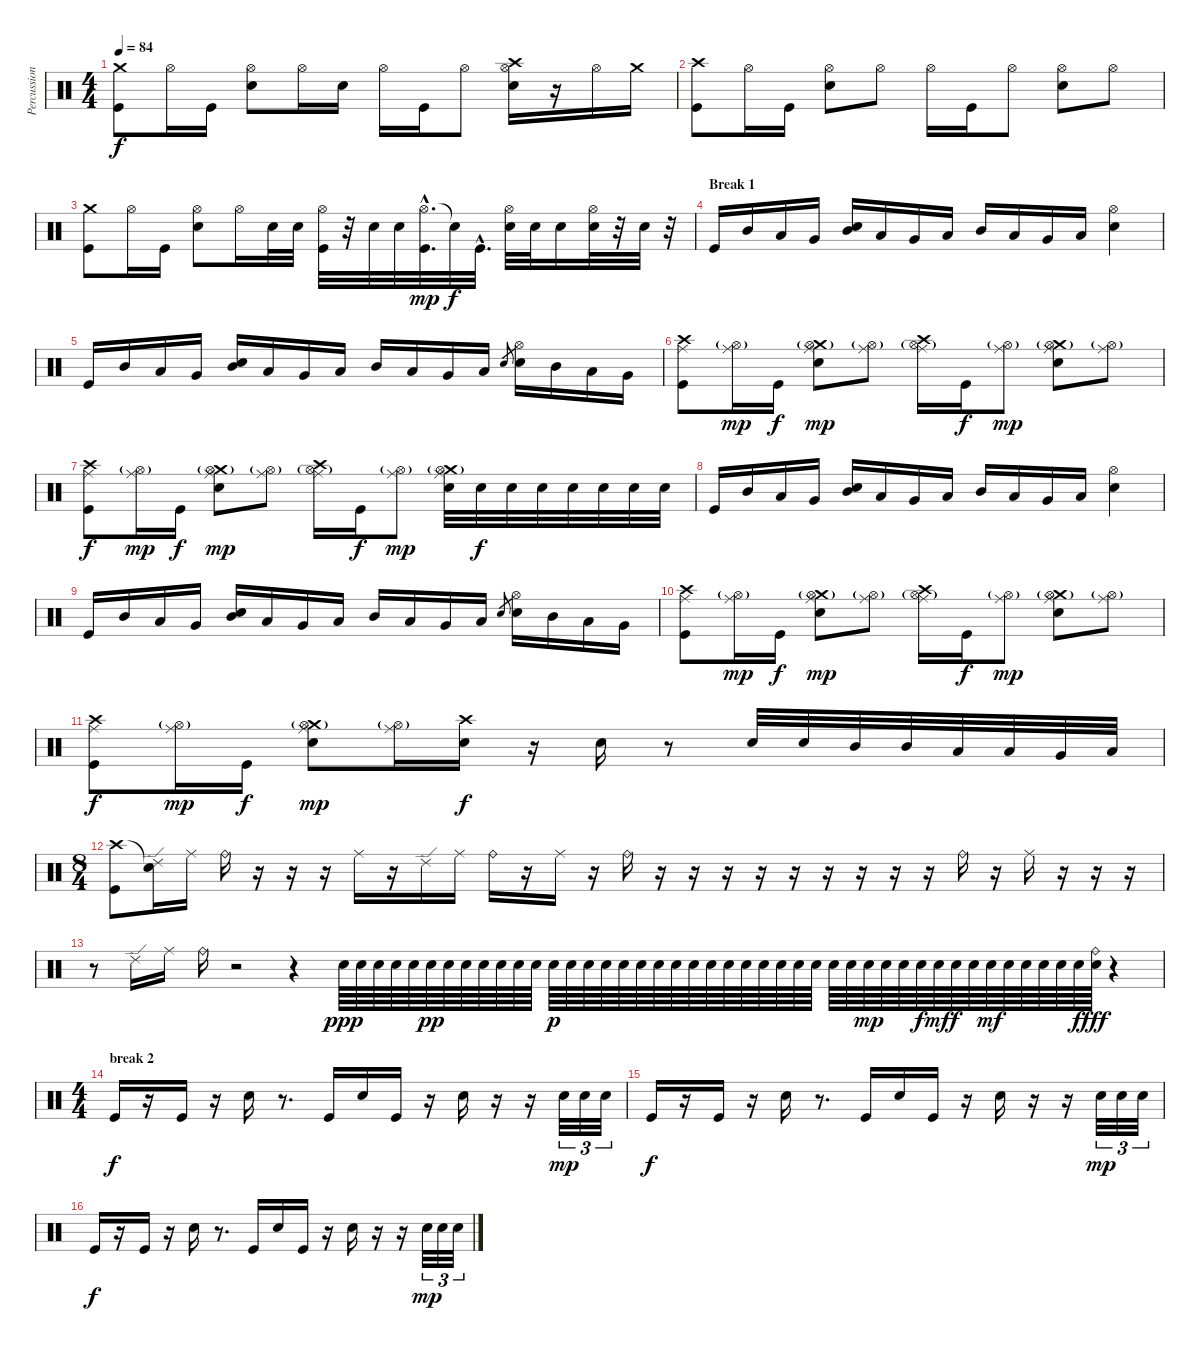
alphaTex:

\track ("Percussions" "Percussion") {instrument percussion}
\staff {score}
\articulation defaults
\ts (4 4)
\tempo 84
\clef neutral
\ks c
("Crash medium (hit)" "Kick (hit)").8{dy f} "Hi-Hat (open)".16 "Kick (hit)".16 ("Hi-Hat (open)" "Snare (hit) 2").8 "Hi-Hat (open)".16 "Snare (hit) 2".16 "Hi-Hat (open)".16 "Kick (hit)".16 "Hi-Hat (open)".8 ("Hi-Hat (open)" "Crash high (hit)" "Snare (hit) 2").16 r.16 "Hi-Hat (open)".16 "Crash medium (hit)".16 |
("Crash high (hit)" "Kick (hit)").8 "Hi-Hat (open)".16 "Kick (hit)".16 ("Hi-Hat (open)" "Snare (hit) 2").8 "Hi-Hat (open)".8 "Hi-Hat (open)".16 "Kick (hit)".16 "Hi-Hat (open)".8 ("Hi-Hat (open)" "Snare (hit) 2").8 "Hi-Hat (open)".8 |
("Crash medium (hit)" "Kick (hit)").8 "Hi-Hat (open)".16 "Kick (hit)".16 ("Hi-Hat (open)" "Snare (hit) 2").8 "Hi-Hat (open)".16 "Snare (hit) 2".32 "Snare (hit) 2".32 ("Hi-Hat (open)" "Kick (hit)").32 r.32 "Snare (hit) 2".32 "Snare (hit) 2".32 ("Hi-Hat (open)"{hac} "Kick (hit)"{hac}).32{d dy mp} "Snare (hit) 2"{t}.32{dy f} "Kick (hit)"{hac}.32{d} ("Hi-Hat (open)" "Snare (hit) 2").32 "Snare (hit) 2".32 "Snare (hit) 2".16 ("Hi-Hat (open)" "Snare (hit) 2").32 r.32 "Snare (hit) 2".32 r.32 |
\section ("" "Break 1")
"Kick (hit)".16 "Mid Tom (hit)".16 "Low Tom (hit)".16 "Very Low Tom (hit)".16 ("Mid Tom (hit)" "Snare (hit) 2").16 "Low Tom (hit)".16 "Very Low Tom (hit)".16 "Low Floor Tom (hit)".16 "Mid Tom (hit)".16 "Low Tom (hit)".16 "Very Low Tom (hit)".16 "Low Floor Tom (hit)".16 ("Hi-Hat (open)" "Snare (hit) 2").4 |
"Kick (hit)".16 "Mid Tom (hit)".16 "Low Tom (hit)".16 "Very Low Tom (hit)".16 ("Mid Tom (hit)" "Snare (hit) 2").16 "Low Tom (hit)".16 "Very Low Tom (hit)".16 "Low Floor Tom (hit)".16 "Mid Tom (hit)".16 "Low Tom (hit)".16 "Very Low Tom (hit)".16 "Low Floor Tom (hit)".16 "Snare (hit) 2".8{gr} ("Hi-Hat (open)" "Snare (hit) 2").16 "Mid Tom (hit)".16 "Low Tom (hit)".16 "Very Low Tom (hit)".16 |
("Crash high (hit)" "Ride (middle)" "Kick (hit)").8 ("Hi-Hat (open)"{g} "Ride (middle)").16{dy mp} "Kick (hit)".16{dy f} ("Crash medium (hit)" "Hi-Hat (open)"{g} "Ride (middle)" "Snare (hit) 2").8{dy mp} ("Hi-Hat (open)"{g} "Ride (middle)").8 ("Crash high (hit)" "Hi-Hat (open)"{g} "Ride (middle)").16 "Kick (hit)".16{dy f} ("Hi-Hat (open)"{g} "Ride (middle)").8{dy mp} ("Crash medium (hit)" "Hi-Hat (open)"{g} "Ride (middle)" "Snare (hit) 2").8 ("Hi-Hat (open)"{g} "Ride (middle)").8 |
("Crash high (hit)" "Ride (middle)" "Kick (hit)").8{dy f} ("Hi-Hat (open)"{g} "Ride (middle)").16{dy mp} "Kick (hit)".16{dy f} ("Crash medium (hit)" "Hi-Hat (open)"{g} "Ride (middle)" "Snare (hit) 2").8{dy mp} ("Hi-Hat (open)"{g} "Ride (middle)").8 ("Crash high (hit)" "Hi-Hat (open)"{g} "Ride (middle)").16 "Kick (hit)".16{dy f} ("Hi-Hat (open)"{g} "Ride (middle)").8{dy mp} ("Crash medium (hit)" "Hi-Hat (open)"{g} "Ride (middle)" "Snare (hit) 2").32 "Snare (hit) 2".32{dy f} "Snare (hit) 2".32 "Snare (hit) 2".32 "Snare (hit) 2".32 "Snare (hit) 2".32 "Snare (hit) 2".32 "Snare (hit) 2".32 |
"Kick (hit)".16 "Mid Tom (hit)".16 "Low Tom (hit)".16 "Very Low Tom (hit)".16 ("Mid Tom (hit)" "Snare (hit) 2").16 "Low Tom (hit)".16 "Very Low Tom (hit)".16 "Low Floor Tom (hit)".16 "Mid Tom (hit)".16 "Low Tom (hit)".16 "Very Low Tom (hit)".16 "Low Floor Tom (hit)".16 ("Hi-Hat (open)" "Snare (hit) 2").4 |
"Kick (hit)".16 "Mid Tom (hit)".16 "Low Tom (hit)".16 "Very Low Tom (hit)".16 ("Mid Tom (hit)" "Snare (hit) 2").16 "Low Tom (hit)".16 "Very Low Tom (hit)".16 "Low Floor Tom (hit)".16 "Mid Tom (hit)".16 "Low Tom (hit)".16 "Very Low Tom (hit)".16 "Low Floor Tom (hit)".16 "Snare (hit) 2".8{gr} ("Hi-Hat (open)" "Snare (hit) 2").16 "Mid Tom (hit)".16 "Low Tom (hit)".16 "Very Low Tom (hit)".16 |
("Crash high (hit)" "Ride (middle)" "Kick (hit)").8 ("Hi-Hat (open)"{g} "Ride (middle)").16{dy mp} "Kick (hit)".16{dy f} ("Crash medium (hit)" "Hi-Hat (open)"{g} "Ride (middle)" "Snare (hit) 2").8{dy mp} ("Hi-Hat (open)"{g} "Ride (middle)").8 ("Crash high (hit)" "Hi-Hat (open)"{g} "Ride (middle)").16 "Kick (hit)".16{dy f} ("Hi-Hat (open)"{g} "Ride (middle)").8{dy mp} ("Crash medium (hit)" "Hi-Hat (open)"{g} "Ride (middle)" "Snare (hit) 2").8 ("Hi-Hat (open)"{g} "Ride (middle)").8 |
("Crash high (hit)" "Ride (middle)" "Kick (hit)").8{dy f} ("Hi-Hat (open)"{g} "Ride (middle)").16{dy mp} "Kick (hit)".16{dy f} ("Crash medium (hit)" "Hi-Hat (open)"{g} "Ride (middle)" "Snare (hit) 2").8{dy mp} ("Hi-Hat (open)"{g} "Ride (middle)").16 ("Crash high (hit)" "Snare (hit) 2").16{dy f} r.16 "Snare (hit) 2".16 r.8 "Snare (hit) 2".32 "Snare (hit) 2".32 "Mid Tom (hit)".32 "Mid Tom (hit)".32 "Low Tom (hit)".32 "Low Tom (hit)".32 "Very Low Tom (hit)".32 "Low Floor Tom (hit)".32 |
\ts (8 4)
("Crash high (hit)" "Kick (hit)").8 ("Snare (hit)"{t} "Ride (edge) 2").16 "Ride (middle)".16 "Ride (bell)".16 r.16 r.16 r.16 "Ride (middle)".16 r.16 "Ride (edge) 2".16 "Ride (middle)".16 "Ride (bell)".16 r.16 "Ride (middle)".16 r.16 "Ride (bell)".16 r.16 r.16 r.16 r.16 r.16 r.16 r.16 r.16 r.16 "Ride (bell)".16 r.16 "Ride (middle)".16 r.16 r.16 r.16 |
r.8 "Ride (edge) 2".16 "Ride (middle)".16 "Ride (bell)".16 r.2 r.4 "Snare (hit) 2".64{dy ppp} "Snare (hit) 2".64 "Snare (hit) 2".64 "Snare (hit) 2".64 "Snare (hit) 2".64 "Snare (hit) 2".64{dy pp} "Snare (hit) 2".64 "Snare (hit) 2".64 "Snare (hit) 2".64 "Snare (hit) 2".64 "Snare (hit) 2".64 "Snare (hit) 2".64 "Snare (hit) 2".64{dy p} "Snare (hit) 2".64 "Snare (hit) 2".64 "Snare (hit) 2".64 "Snare (hit) 2".64 "Snare (hit) 2".64 "Snare (hit) 2".64 "Snare (hit) 2".64 "Snare (hit) 2".64 "Snare (hit) 2".64 "Snare (hit) 2".64 "Snare (hit) 2".64 "Snare (hit) 2".64 "Snare (hit) 2".64 "Snare (hit) 2".64 "Snare (hit) 2".64 "Snare (hit) 2".64 "Snare (hit) 2".64 "Snare (hit) 2".64{dy mp} "Snare (hit) 2".64 "Snare (hit) 2".64 "Snare (hit) 2".64{dy f} "Snare (hit) 2".64{dy mf} "Snare (hit) 2".64{dy f} "Snare (hit) 2".64 "Snare (hit) 2".64{dy mf} "Snare (hit) 2".64 "Snare (hit) 2".64 "Snare (hit) 2".64 "Snare (hit) 2".64 "Snare (hit) 2".64{dy f} ("Ride (bell)" "Snare (hit) 2").64{dy fff} r.4 |
\ts (4 4)
\section ("" "break 2")
"Kick (hit)".16{dy f} r.16 "Kick (hit)".16 r.16 "Snare (hit) 2".16 r.8{d} "Kick (hit)".16 "Snare (hit) 2".16 "Kick (hit)".16 r.16 "Snare (hit) 2".16 r.16 r.16 "Snare (hit) 2".32{tu (3 2) dy mp} "Snare (hit) 2".32{tu (3 2)} "Snare (hit) 2".32{tu (3 2)} |
"Kick (hit)".16{dy f} r.16 "Kick (hit)".16 r.16 "Snare (hit) 2".16 r.8{d} "Kick (hit)".16 "Snare (hit) 2".16 "Kick (hit)".16 r.16 "Snare (hit) 2".16 r.16 r.16 "Snare (hit) 2".32{tu (3 2) dy mp} "Snare (hit) 2".32{tu (3 2)} "Snare (hit) 2".32{tu (3 2)} |
"Kick (hit)".16{dy f} r.16 "Kick (hit)".16 r.16 "Snare (hit) 2".16 r.8{d} "Kick (hit)".16 "Snare (hit) 2".16 "Kick (hit)".16 r.16 "Snare (hit) 2".16 r.16 r.16 "Snare (hit) 2".32{tu (3 2) dy mp} "Snare (hit) 2".32{tu (3 2)} "Snare (hit) 2".32{tu (3 2)}
